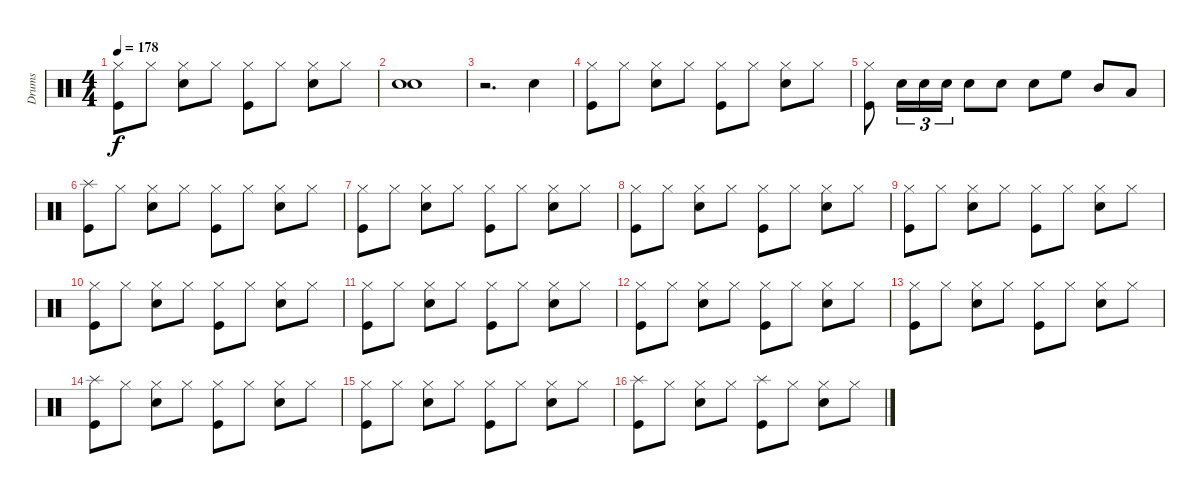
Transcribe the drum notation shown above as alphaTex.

\track ("Drums" "Drums") {instrument percussion}
\staff {score}
\articulation defaults
\ts (4 4)
\tempo 178
\clef neutral
\ks c
("Hi-Hat (closed)" "Kick (hit)").8{dy f} "Hi-Hat (closed)".8 ("Hi-Hat (closed)" "Electric Snare (hit)").8 "Hi-Hat (closed)".8 ("Hi-Hat (closed)" "Kick (hit)").8 "Hi-Hat (closed)".8 ("Hi-Hat (closed)" "Electric Snare (hit)").8 "Hi-Hat (closed)".8 |
("Electric Snare (hit)" "Electric Snare (hit)").1 |
r.2{d} "Electric Snare (hit)".4 |
("Hi-Hat (closed)" "Kick (hit)").8 "Hi-Hat (closed)".8 ("Hi-Hat (closed)" "Electric Snare (hit)").8 "Hi-Hat (closed)".8 ("Hi-Hat (closed)" "Kick (hit)").8 "Hi-Hat (closed)".8 ("Hi-Hat (closed)" "Electric Snare (hit)").8 "Hi-Hat (closed)".8 |
("Hi-Hat (closed)" "Kick (hit)").8 "Electric Snare (hit)".16{tu (3 2)} "Electric Snare (hit)".16{tu (3 2)} "Electric Snare (hit)".16{tu (3 2)} "Electric Snare (hit)".8 "Electric Snare (hit)".8 "Electric Snare (hit)".8 "High Floor Tom (hit)".8 "Mid Tom (hit)".8 "Low Tom (hit)".8 |
("Splash (hit)" "Kick (hit)").8 "Hi-Hat (closed)".8 ("Hi-Hat (closed)" "Electric Snare (hit)").8 "Hi-Hat (closed)".8 ("Hi-Hat (closed)" "Kick (hit)").8 "Hi-Hat (closed)".8 ("Hi-Hat (closed)" "Electric Snare (hit)").8 "Hi-Hat (closed)".8 |
("Hi-Hat (closed)" "Kick (hit)").8 "Hi-Hat (closed)".8 ("Hi-Hat (closed)" "Electric Snare (hit)").8 "Hi-Hat (closed)".8 ("Hi-Hat (closed)" "Kick (hit)").8 "Hi-Hat (closed)".8 ("Hi-Hat (closed)" "Electric Snare (hit)").8 "Hi-Hat (closed)".8 |
("Hi-Hat (closed)" "Kick (hit)").8 "Hi-Hat (closed)".8 ("Hi-Hat (closed)" "Electric Snare (hit)").8 "Hi-Hat (closed)".8 ("Hi-Hat (closed)" "Kick (hit)").8 "Hi-Hat (closed)".8 ("Hi-Hat (closed)" "Electric Snare (hit)").8 "Hi-Hat (closed)".8 |
("Hi-Hat (closed)" "Kick (hit)").8 "Hi-Hat (closed)".8 ("Hi-Hat (closed)" "Electric Snare (hit)").8 "Hi-Hat (closed)".8 ("Hi-Hat (closed)" "Kick (hit)").8 "Hi-Hat (closed)".8 ("Hi-Hat (closed)" "Electric Snare (hit)").8 "Hi-Hat (closed)".8 |
("Hi-Hat (closed)" "Kick (hit)").8 "Hi-Hat (closed)".8 ("Hi-Hat (closed)" "Electric Snare (hit)").8 "Hi-Hat (closed)".8 ("Hi-Hat (closed)" "Kick (hit)").8 "Hi-Hat (closed)".8 ("Hi-Hat (closed)" "Electric Snare (hit)").8 "Hi-Hat (closed)".8 |
("Hi-Hat (closed)" "Kick (hit)").8 "Hi-Hat (closed)".8 ("Hi-Hat (closed)" "Electric Snare (hit)").8 "Hi-Hat (closed)".8 ("Hi-Hat (closed)" "Kick (hit)").8 "Hi-Hat (closed)".8 ("Hi-Hat (closed)" "Electric Snare (hit)").8 "Hi-Hat (closed)".8 |
("Hi-Hat (closed)" "Kick (hit)").8 "Hi-Hat (closed)".8 ("Hi-Hat (closed)" "Electric Snare (hit)").8 "Hi-Hat (closed)".8 ("Hi-Hat (closed)" "Kick (hit)").8 "Hi-Hat (closed)".8 ("Hi-Hat (closed)" "Electric Snare (hit)").8 "Hi-Hat (closed)".8 |
("Hi-Hat (closed)" "Kick (hit)").8 "Hi-Hat (closed)".8 ("Hi-Hat (closed)" "Electric Snare (hit)").8 "Hi-Hat (closed)".8 ("Hi-Hat (closed)" "Kick (hit)").8 "Hi-Hat (closed)".8 ("Hi-Hat (closed)" "Electric Snare (hit)").8 "Hi-Hat (closed)".8 |
("Splash (hit)" "Kick (hit)").8 "Hi-Hat (closed)".8 ("Hi-Hat (closed)" "Electric Snare (hit)").8 "Hi-Hat (closed)".8 ("Hi-Hat (closed)" "Kick (hit)").8 "Hi-Hat (closed)".8 ("Hi-Hat (closed)" "Electric Snare (hit)").8 "Hi-Hat (closed)".8 |
("Hi-Hat (closed)" "Kick (hit)").8 "Hi-Hat (closed)".8 ("Hi-Hat (closed)" "Electric Snare (hit)").8 "Hi-Hat (closed)".8 ("Hi-Hat (closed)" "Kick (hit)").8 "Hi-Hat (closed)".8 ("Hi-Hat (closed)" "Electric Snare (hit)").8 "Hi-Hat (closed)".8 |
("Splash (hit)" "Kick (hit)").8 "Hi-Hat (closed)".8 ("Hi-Hat (closed)" "Electric Snare (hit)").8 "Hi-Hat (closed)".8 ("Splash (hit)" "Kick (hit)").8 "Hi-Hat (closed)".8 ("Hi-Hat (closed)" "Electric Snare (hit)").8 "Hi-Hat (closed)".8
